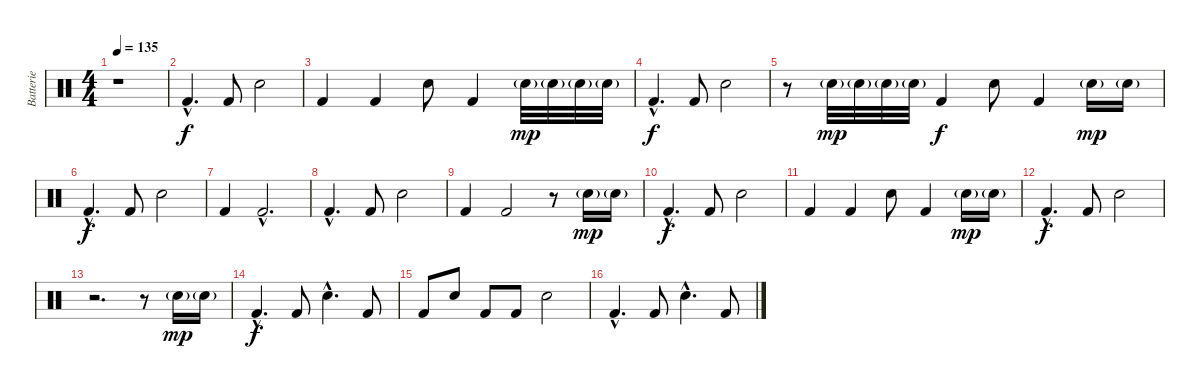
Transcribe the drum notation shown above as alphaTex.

\track ("Batterie" "Batterie") {instrument percussion}
\staff {score}
\articulation defaults
\ts (4 4)
\tempo 135
\clef neutral
\ks c
r.1{dy f} |
"Kick (hit) 2"{hac}.4{d} "Kick (hit) 2".8 "Snare (hit) 2".2 |
"Kick (hit) 2".4 "Kick (hit) 2".4 "Snare (hit) 2".8 "Kick (hit) 2".4 "Snare (hit) 2"{g}.32{dy mp} "Snare (hit) 2"{g}.32 "Snare (hit) 2"{g}.32 "Snare (hit) 2"{g}.32 |
"Kick (hit) 2"{hac}.4{d dy f} "Kick (hit) 2".8 "Snare (hit) 2".2 |
r.8 "Snare (hit) 2"{g}.32{dy mp} "Snare (hit) 2"{g}.32 "Snare (hit) 2"{g}.32 "Snare (hit) 2"{g}.32 "Kick (hit) 2".4{dy f} "Snare (hit) 2".8 "Kick (hit) 2".4 "Snare (hit) 2"{g}.16{dy mp} "Snare (hit) 2"{g}.16 |
"Kick (hit) 2"{hac}.4{d dy f} "Kick (hit) 2".8 "Snare (hit) 2".2 |
"Kick (hit) 2".4 "Kick (hit) 2"{hac}.2{d} |
"Kick (hit) 2"{hac}.4{d} "Kick (hit) 2".8 "Snare (hit) 2".2 |
"Kick (hit) 2".4 "Kick (hit) 2".2 r.8 "Snare (hit) 2"{g}.16{dy mp} "Snare (hit) 2"{g}.16 |
"Kick (hit) 2"{hac}.4{d dy f} "Kick (hit) 2".8 "Snare (hit) 2".2 |
"Kick (hit) 2".4 "Kick (hit) 2".4 "Snare (hit) 2".8 "Kick (hit) 2".4 "Snare (hit) 2"{g}.16{dy mp} "Snare (hit) 2"{g}.16 |
"Kick (hit) 2"{hac}.4{d dy f} "Kick (hit) 2".8 "Snare (hit) 2".2 |
r.2{d} r.8 "Snare (hit) 2"{g}.16{dy mp} "Snare (hit) 2"{g}.16 |
"Kick (hit) 2"{hac}.4{d dy f} "Kick (hit) 2".8 "Snare (hit) 2"{hac}.4{d} "Kick (hit) 2".8 |
"Kick (hit) 2".8 "Snare (hit) 2".8 "Kick (hit) 2".8 "Kick (hit) 2".8 "Snare (hit) 2".2 |
"Kick (hit) 2"{hac}.4{d} "Kick (hit) 2".8 "Snare (hit) 2"{hac}.4{d} "Kick (hit) 2".8
